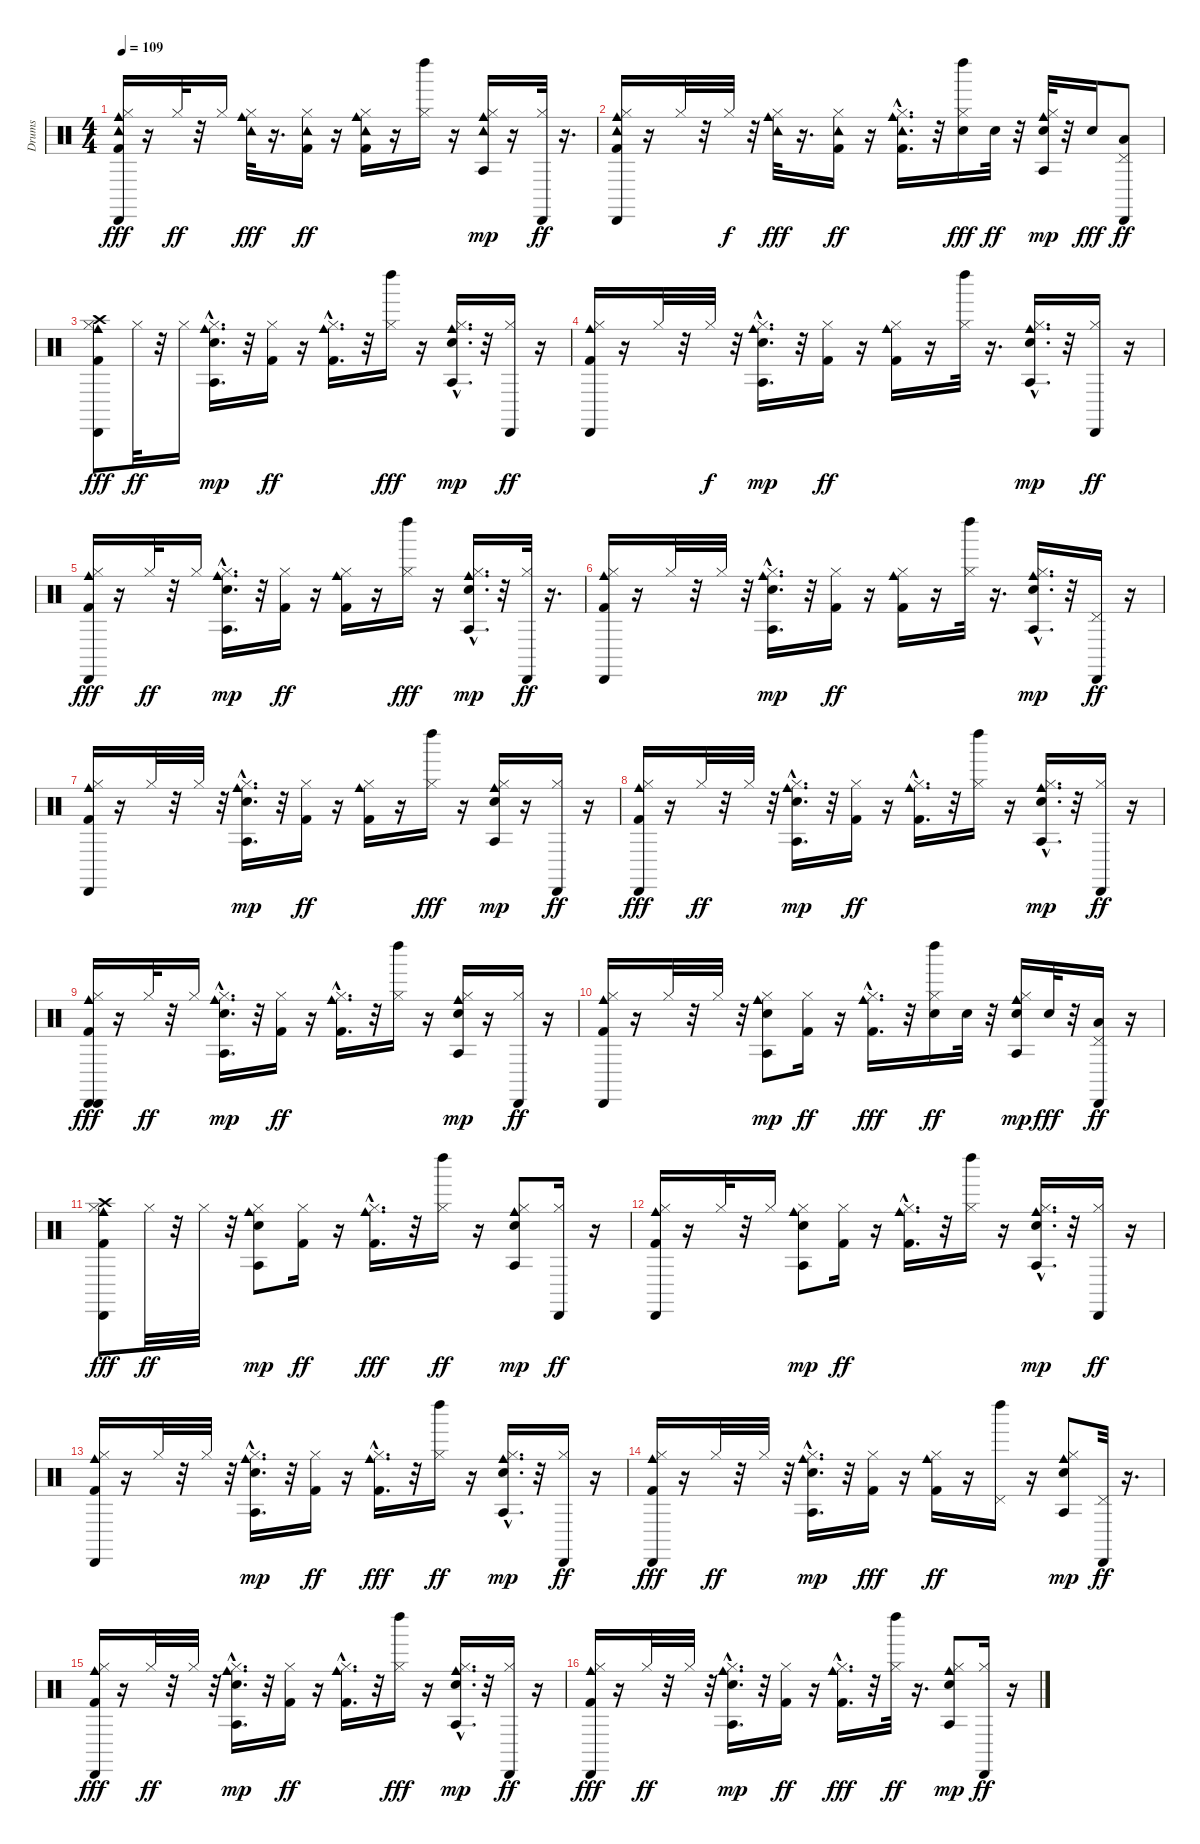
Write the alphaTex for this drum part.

\track ("Drums   " "Drums   ") {instrument percussion}
\staff {score}
\articulation defaults
\ts (4 4)
\tempo 109
\clef neutral
\ks c
("Cowbell medium (hit)" "Kick (hit) 2" "Hi-Hat (closed)" "Tambourine (hit)" "Cabasa (hit)").16{dy fff} r.16 "Hi-Hat (closed)".32{dy ff} r.32 "Hi-Hat (closed)".16 ("Hi-Hat (closed)" "Tambourine (hit)" "Cowbell medium (hit)").32{dy fff} r.16{d} ("Kick (hit) 2" "Hi-Hat (closed)" "Tambourine (hit)").16{dy ff} r.16 ("Cowbell medium (hit)" "Kick (hit) 2" "Hi-Hat (closed)" "Tambourine (hit)").16 r.16 ("Hi-Hat (closed)" "Left Maraca (hit)").16 r.16 ("Hi-Hat (closed)" "Tambourine (hit)" "Cowbell medium (hit)" "Agogo tow (hit)").16{dy mp} r.16 ("Hi-Hat (closed)" "Cabasa (hit)").32{dy ff} r.16{d} |
("Kick (hit) 2" "Cowbell medium (hit)" "Hi-Hat (closed)" "Tambourine (hit)" "Cabasa (hit)").16 r.16 "Hi-Hat (closed)".32 r.32 "Hi-Hat (closed)".32{dy f} r.32 ("Hi-Hat (closed)" "Tambourine (hit)" "Cowbell medium (hit)").32{dy fff} r.16{d} ("Kick (hit) 2" "Hi-Hat (closed)" "Tambourine (hit)").16{dy ff} r.16 ("Kick (hit) 2"{hac} "Cowbell medium (hit)"{hac} "Hi-Hat (closed)"{hac} "Tambourine (hit)"{hac}).16{d} r.32 ("Snare (hit) 2" "Hi-Hat (closed)" "Left Maraca (hit)").16{dy fff} "Snare (hit) 2".32{dy ff} r.32 ("Snare (hit) 2" "Hi-Hat (closed)" "Cowbell medium (hit)" "Agogo tow (hit)").32{dy mp} r.32 "Snare (hit) 2".16{dy fff} ("Pedal Hi-Hat (hit)" "Low Tom (hit)" "Cabasa (hit)").8{dy ff} |
("Cowbell medium (hit)" "Kick (hit) 2" "Hi-Hat (closed)" "Cabasa (hit)" "Crash high (hit)").8{dy fff} "Hi-Hat (closed)".32{dy ff} r.32 "Hi-Hat (closed)".16 ("Snare (hit) 2"{hac} "Hi-Hat (closed)"{hac} "Cowbell medium (hit)"{hac} "Agogo tow (hit)"{hac}).16{d dy mp} r.32 ("Kick (hit) 2" "Hi-Hat (closed)").16{dy ff} r.16 ("Kick (hit) 2"{hac} "Cowbell medium (hit)"{hac} "Hi-Hat (closed)"{hac}).16{d} r.32 ("Hi-Hat (closed)" "Left Maraca (hit)").16{dy fff} r.16 ("Snare (hit) 2"{hac} "Cowbell medium (hit)"{hac} "Hi-Hat (closed)"{hac} "Agogo tow (hit)"{hac}).16{d dy mp} r.32 ("Hi-Hat (closed)" "Cabasa (hit)").16{dy ff} r.16 |
("Kick (hit) 2" "Cowbell medium (hit)" "Hi-Hat (closed)" "Cabasa (hit)").16 r.16 "Hi-Hat (closed)".32 r.32 "Hi-Hat (closed)".32{dy f} r.32 ("Snare (hit) 2"{hac} "Hi-Hat (closed)"{hac} "Cowbell medium (hit)"{hac} "Agogo tow (hit)"{hac}).16{d dy mp} r.32 ("Kick (hit) 2" "Hi-Hat (closed)").16{dy ff} r.16 ("Kick (hit) 2" "Cowbell medium (hit)" "Hi-Hat (closed)").16 r.16 ("Hi-Hat (closed)" "Left Maraca (hit)").32 r.16{d} ("Snare (hit) 2"{hac} "Hi-Hat (closed)"{hac} "Cowbell medium (hit)"{hac} "Agogo tow (hit)"{hac}).16{d dy mp} r.32 ("Hi-Hat (closed)" "Cabasa (hit)").16{dy ff} r.16 |
("Cowbell medium (hit)" "Kick (hit) 2" "Hi-Hat (closed)" "Cabasa (hit)").16{dy fff} r.16 "Hi-Hat (closed)".32{dy ff} r.32 "Hi-Hat (closed)".16 ("Snare (hit) 2"{hac} "Cowbell medium (hit)"{hac} "Hi-Hat (closed)"{hac} "Agogo tow (hit)"{hac}).16{d dy mp} r.32 ("Kick (hit) 2" "Hi-Hat (closed)").16{dy ff} r.16 ("Cowbell medium (hit)" "Kick (hit) 2" "Hi-Hat (closed)").16 r.16 ("Hi-Hat (closed)" "Left Maraca (hit)").16{dy fff} r.16 ("Snare (hit) 2"{hac} "Hi-Hat (closed)"{hac} "Cowbell medium (hit)"{hac} "Agogo tow (hit)"{hac}).16{d dy mp} r.32 ("Hi-Hat (closed)" "Cabasa (hit)").32{dy ff} r.16{d} |
("Kick (hit) 2" "Hi-Hat (closed)" "Cowbell medium (hit)" "Cabasa (hit)").16 r.16 "Hi-Hat (closed)".32 r.32 "Hi-Hat (closed)".32 r.32 ("Snare (hit) 2"{hac} "Cowbell medium (hit)"{hac} "Hi-Hat (closed)"{hac} "Agogo tow (hit)"{hac}).16{d dy mp} r.32 ("Kick (hit) 2" "Hi-Hat (closed)").16{dy ff} r.16 ("Cowbell medium (hit)" "Kick (hit) 2" "Hi-Hat (closed)").16 r.16 ("Hi-Hat (closed)" "Left Maraca (hit)").32 r.16{d} ("Snare (hit) 2"{hac} "Cowbell medium (hit)"{hac} "Hi-Hat (closed)"{hac} "Agogo tow (hit)"{hac}).16{d dy mp} r.32 ("Pedal Hi-Hat (hit)" "Cabasa (hit)").16{dy ff} r.16 |
("Kick (hit) 2" "Cowbell medium (hit)" "Hi-Hat (closed)" "Cabasa (hit)").16 r.16 "Hi-Hat (closed)".32 r.32 "Hi-Hat (closed)".32 r.32 ("Snare (hit) 2"{hac} "Hi-Hat (closed)"{hac} "Cowbell medium (hit)"{hac} "Agogo tow (hit)"{hac}).16{d dy mp} r.32 ("Kick (hit) 2" "Hi-Hat (closed)").16{dy ff} r.16 ("Kick (hit) 2" "Cowbell medium (hit)" "Hi-Hat (closed)").16 r.16 ("Hi-Hat (closed)" "Left Maraca (hit)").16{dy fff} r.16 ("Snare (hit) 2" "Hi-Hat (closed)" "Cowbell medium (hit)" "Agogo tow (hit)").16{dy mp} r.16 ("Hi-Hat (closed)" "Cabasa (hit)").16{dy ff} r.16 |
("Kick (hit) 2" "Cowbell medium (hit)" "Hi-Hat (closed)" "Cabasa (hit)").16{dy fff} r.16 "Hi-Hat (closed)".32{dy ff} r.32 "Hi-Hat (closed)".32 r.32 ("Snare (hit) 2"{hac} "Hi-Hat (closed)"{hac} "Cowbell medium (hit)"{hac} "Agogo tow (hit)"{hac}).16{d dy mp} r.32 ("Kick (hit) 2" "Hi-Hat (closed)").16{dy ff} r.16 ("Kick (hit) 2"{hac} "Cowbell medium (hit)"{hac} "Hi-Hat (closed)"{hac}).16{d} r.32 ("Hi-Hat (closed)" "Left Maraca (hit)").16 r.16 ("Snare (hit) 2"{hac} "Hi-Hat (closed)"{hac} "Cowbell medium (hit)"{hac} "Agogo tow (hit)"{hac}).16{d dy mp} r.32 ("Hi-Hat (closed)" "Cabasa (hit)").16{dy ff} r.16 |
("Kick (hit) 2" "Hi-Hat (closed)" "Cowbell medium (hit)" "Cabasa (hit)" "Cabasa (hit)").16{dy fff} r.16 "Hi-Hat (closed)".32{dy ff} r.32 "Hi-Hat (closed)".16 ("Snare (hit) 2"{hac} "Hi-Hat (closed)"{hac} "Cowbell medium (hit)"{hac} "Agogo tow (hit)"{hac}).16{d dy mp} r.32 ("Kick (hit) 2" "Hi-Hat (closed)").16{dy ff} r.16 ("Kick (hit) 2"{hac} "Cowbell medium (hit)"{hac} "Hi-Hat (closed)"{hac}).16{d} r.32 ("Hi-Hat (closed)" "Left Maraca (hit)").16 r.16 ("Cowbell medium (hit)" "Snare (hit) 2" "Hi-Hat (closed)" "Agogo tow (hit)").16{dy mp} r.16 ("Hi-Hat (closed)" "Cabasa (hit)").16{dy ff} r.16 |
("Cowbell medium (hit)" "Kick (hit) 2" "Hi-Hat (closed)" "Cabasa (hit)").16 r.16 "Hi-Hat (closed)".32 r.32 "Hi-Hat (closed)".32 r.32 ("Snare (hit) 2" "Hi-Hat (closed)" "Cowbell medium (hit)" "Agogo tow (hit)").8{dy mp} ("Kick (hit) 2" "Hi-Hat (closed)").16{dy ff} r.16 ("Kick (hit) 2"{hac} "Hi-Hat (closed)"{hac} "Cowbell medium (hit)"{hac}).16{d dy fff} r.32 ("Snare (hit) 2" "Hi-Hat (closed)" "Left Maraca (hit)").16{dy ff} "Snare (hit) 2".32 r.32 ("Snare (hit) 2" "Hi-Hat (closed)" "Cowbell medium (hit)" "Agogo tow (hit)").16{dy mp} "Snare (hit) 2".32{dy fff} r.32 ("Pedal Hi-Hat (hit)" "Low Tom (hit)" "Cabasa (hit)").16{dy ff} r.16 |
("Kick (hit) 2" "Cowbell medium (hit)" "Hi-Hat (closed)" "Cabasa (hit)" "Crash high (hit)").8{dy fff} "Hi-Hat (closed)".32{dy ff} r.32 "Hi-Hat (closed)".32 r.32 ("Snare (hit) 2" "Hi-Hat (closed)" "Cowbell medium (hit)" "Agogo tow (hit)").8{dy mp} ("Kick (hit) 2" "Hi-Hat (closed)").16{dy ff} r.16 ("Kick (hit) 2"{hac} "Cowbell medium (hit)"{hac} "Hi-Hat (closed)"{hac}).16{d dy fff} r.32 ("Hi-Hat (closed)" "Left Maraca (hit)").16{dy ff} r.16 ("Snare (hit) 2" "Hi-Hat (closed)" "Cowbell medium (hit)" "Agogo tow (hit)").8{dy mp} ("Hi-Hat (closed)" "Cabasa (hit)").16{dy ff} r.16 |
("Kick (hit) 2" "Hi-Hat (closed)" "Cowbell medium (hit)" "Cabasa (hit)").16 r.16 "Hi-Hat (closed)".32 r.32 "Hi-Hat (closed)".16 ("Snare (hit) 2" "Hi-Hat (closed)" "Cowbell medium (hit)" "Agogo tow (hit)").8{dy mp} ("Kick (hit) 2" "Hi-Hat (closed)").16{dy ff} r.16 ("Kick (hit) 2"{hac} "Cowbell medium (hit)"{hac} "Hi-Hat (closed)"{hac}).16{d} r.32 ("Hi-Hat (closed)" "Left Maraca (hit)").16 r.16 ("Cowbell medium (hit)"{hac} "Snare (hit) 2"{hac} "Hi-Hat (closed)"{hac} "Agogo tow (hit)"{hac}).16{d dy mp} r.32 ("Hi-Hat (closed)" "Cabasa (hit)").16{dy ff} r.16 |
("Kick (hit) 2" "Hi-Hat (closed)" "Cowbell medium (hit)" "Cabasa (hit)").16 r.16 "Hi-Hat (closed)".32 r.32 "Hi-Hat (closed)".32 r.32 ("Snare (hit) 2"{hac} "Cowbell medium (hit)"{hac} "Hi-Hat (closed)"{hac} "Agogo tow (hit)"{hac}).16{d dy mp} r.32 ("Kick (hit) 2" "Hi-Hat (closed)").16{dy ff} r.16 ("Kick (hit) 2"{hac} "Hi-Hat (closed)"{hac} "Cowbell medium (hit)"{hac}).16{d dy fff} r.32 ("Hi-Hat (closed)" "Left Maraca (hit)").16{dy ff} r.16 ("Snare (hit) 2"{hac} "Cowbell medium (hit)"{hac} "Hi-Hat (closed)"{hac} "Agogo tow (hit)"{hac}).16{d dy mp} r.32 ("Hi-Hat (closed)" "Cabasa (hit)").16{dy ff} r.16 |
("Cowbell medium (hit)" "Kick (hit) 2" "Hi-Hat (closed)" "Cabasa (hit)").16{dy fff} r.16 "Hi-Hat (closed)".32{dy ff} r.32 "Hi-Hat (closed)".32 r.32 ("Snare (hit) 2"{hac} "Hi-Hat (closed)"{hac} "Cowbell medium (hit)"{hac} "Agogo tow (hit)"{hac}).16{d dy mp} r.32 ("Kick (hit) 2" "Hi-Hat (closed)").16{dy fff} r.16 ("Cowbell medium (hit)" "Kick (hit) 2" "Hi-Hat (closed)").16{dy ff} r.16 ("Pedal Hi-Hat (hit)" "Left Maraca (hit)").16 r.16 ("Snare (hit) 2" "Hi-Hat (closed)" "Cowbell medium (hit)" "Agogo tow (hit)").8{dy mp} ("Pedal Hi-Hat (hit)" "Cabasa (hit)").32{dy ff} r.16{d} |
("Kick (hit) 2" "Hi-Hat (closed)" "Cowbell medium (hit)" "Cabasa (hit)").16{dy fff} r.16 "Hi-Hat (closed)".32{dy ff} r.32 "Hi-Hat (closed)".32 r.32 ("Snare (hit) 2"{hac} "Hi-Hat (closed)"{hac} "Cowbell medium (hit)"{hac} "Agogo tow (hit)"{hac}).16{d dy mp} r.32 ("Kick (hit) 2" "Hi-Hat (closed)").16{dy ff} r.16 ("Kick (hit) 2"{hac} "Cowbell medium (hit)"{hac} "Hi-Hat (closed)"{hac}).16{d} r.32 ("Hi-Hat (closed)" "Left Maraca (hit)").16{dy fff} r.16 ("Cowbell medium (hit)"{hac} "Snare (hit) 2"{hac} "Hi-Hat (closed)"{hac} "Agogo tow (hit)"{hac}).16{d dy mp} r.32 ("Hi-Hat (closed)" "Cabasa (hit)").16{dy ff} r.16 |
("Cowbell medium (hit)" "Kick (hit) 2" "Hi-Hat (closed)" "Cabasa (hit)").16{dy fff} r.16 "Hi-Hat (closed)".32{dy ff} r.32 "Hi-Hat (closed)".32 r.32 ("Snare (hit) 2"{hac} "Hi-Hat (closed)"{hac} "Cowbell medium (hit)"{hac} "Agogo tow (hit)"{hac}).16{d dy mp} r.32 ("Kick (hit) 2" "Hi-Hat (closed)").16{dy ff} r.16 ("Kick (hit) 2"{hac} "Hi-Hat (closed)"{hac} "Cowbell medium (hit)"{hac}).16{d dy fff} r.32 ("Hi-Hat (closed)" "Left Maraca (hit)").32{dy ff} r.16{d} ("Snare (hit) 2" "Hi-Hat (closed)" "Cowbell medium (hit)" "Agogo tow (hit)").8{dy mp} ("Hi-Hat (closed)" "Cabasa (hit)").16{dy ff} r.16
